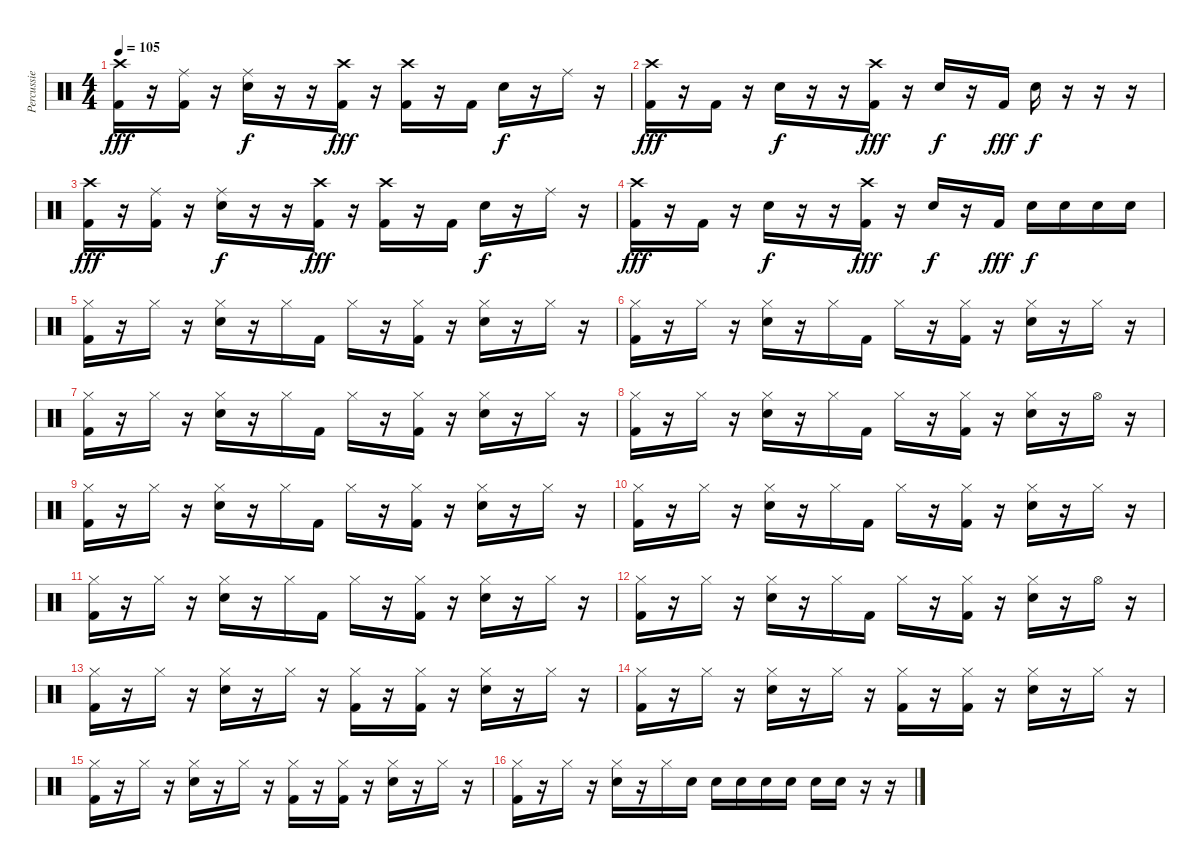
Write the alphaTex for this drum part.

\track ("Percussie" "Percussie") {instrument percussion}
\staff {score}
\articulation defaults
\ts (4 4)
\tempo 105
\clef neutral
\ks c
("Crash high (hit)" "Kick (hit) 2").16{dy fff} r.16 ("Ride (middle)" "Kick (hit) 2").16 r.16 ("Ride (middle)" "Electric Snare (hit)").16{dy f} r.16 r.16 ("Crash high (hit)" "Kick (hit) 2").16{dy fff} r.16 ("Crash high (hit)" "Kick (hit) 2").16 r.16 "Kick (hit) 2".16 "Electric Snare (hit)".16{dy f} r.16 "Ride (middle)".16 r.16 |
("Crash high (hit)" "Kick (hit) 2").16{dy fff} r.16 "Kick (hit) 2".16 r.16 "Electric Snare (hit)".16{dy f} r.16 r.16 ("Crash high (hit)" "Kick (hit) 2").16{dy fff} r.16 "Electric Snare (hit)".16{dy f} r.16 "Kick (hit) 2".16{dy fff} "Electric Snare (hit)".16{dy f} r.16 r.16 r.16 |
("Crash high (hit)" "Kick (hit) 2").16{dy fff} r.16 ("Ride (middle)" "Kick (hit) 2").16 r.16 ("Ride (middle)" "Electric Snare (hit)").16{dy f} r.16 r.16 ("Crash high (hit)" "Kick (hit) 2").16{dy fff} r.16 ("Crash high (hit)" "Kick (hit) 2").16 r.16 "Kick (hit) 2".16 "Electric Snare (hit)".16{dy f} r.16 "Ride (middle)".16 r.16 |
("Crash high (hit)" "Kick (hit) 2").16{dy fff} r.16 "Kick (hit) 2".16 r.16 "Electric Snare (hit)".16{dy f} r.16 r.16 ("Crash high (hit)" "Kick (hit) 2").16{dy fff} r.16 "Electric Snare (hit)".16{dy f} r.16 "Kick (hit) 2".16{dy fff} "Electric Snare (hit)".16{dy f} "Electric Snare (hit)".16 "Electric Snare (hit)".16 "Electric Snare (hit)".16 |
("Hi-Hat (closed)" "Kick (hit) 2").16 r.16 "Hi-Hat (closed)".16 r.16 ("Hi-Hat (closed)" "Electric Snare (hit)").16 r.16 "Hi-Hat (closed)".16 "Kick (hit) 2".16 "Hi-Hat (closed)".16 r.16 ("Hi-Hat (closed)" "Kick (hit) 2").16 r.16 ("Hi-Hat (closed)" "Electric Snare (hit)").16 r.16 "Hi-Hat (closed)".16 r.16 |
("Hi-Hat (closed)" "Kick (hit) 2").16 r.16 "Hi-Hat (closed)".16 r.16 ("Hi-Hat (closed)" "Electric Snare (hit)").16 r.16 "Hi-Hat (closed)".16 "Kick (hit) 2".16 "Hi-Hat (closed)".16 r.16 ("Hi-Hat (closed)" "Kick (hit) 2").16 r.16 ("Hi-Hat (closed)" "Electric Snare (hit)").16 r.16 "Hi-Hat (closed)".16 r.16 |
("Hi-Hat (closed)" "Kick (hit) 2").16 r.16 "Hi-Hat (closed)".16 r.16 ("Hi-Hat (closed)" "Electric Snare (hit)").16 r.16 "Hi-Hat (closed)".16 "Kick (hit) 2".16 "Hi-Hat (closed)".16 r.16 ("Hi-Hat (closed)" "Kick (hit) 2").16 r.16 ("Hi-Hat (closed)" "Electric Snare (hit)").16 r.16 "Hi-Hat (closed)".16 r.16 |
("Hi-Hat (closed)" "Kick (hit) 2").16 r.16 "Hi-Hat (closed)".16 r.16 ("Hi-Hat (closed)" "Electric Snare (hit)").16 r.16 "Hi-Hat (closed)".16 "Kick (hit) 2".16 "Hi-Hat (closed)".16 r.16 ("Hi-Hat (closed)" "Kick (hit) 2").16 r.16 ("Hi-Hat (closed)" "Electric Snare (hit)").16 r.16 "Hi-Hat (open)".16 r.16 |
("Hi-Hat (closed)" "Kick (hit) 2").16 r.16 "Hi-Hat (closed)".16 r.16 ("Hi-Hat (closed)" "Electric Snare (hit)").16 r.16 "Hi-Hat (closed)".16 "Kick (hit) 2".16 "Hi-Hat (closed)".16 r.16 ("Hi-Hat (closed)" "Kick (hit) 2").16 r.16 ("Hi-Hat (closed)" "Electric Snare (hit)").16 r.16 "Hi-Hat (closed)".16 r.16 |
("Hi-Hat (closed)" "Kick (hit) 2").16 r.16 "Hi-Hat (closed)".16 r.16 ("Hi-Hat (closed)" "Electric Snare (hit)").16 r.16 "Hi-Hat (closed)".16 "Kick (hit) 2".16 "Hi-Hat (closed)".16 r.16 ("Hi-Hat (closed)" "Kick (hit) 2").16 r.16 ("Hi-Hat (closed)" "Electric Snare (hit)").16 r.16 "Hi-Hat (closed)".16 r.16 |
("Hi-Hat (closed)" "Kick (hit) 2").16 r.16 "Hi-Hat (closed)".16 r.16 ("Hi-Hat (closed)" "Electric Snare (hit)").16 r.16 "Hi-Hat (closed)".16 "Kick (hit) 2".16 "Hi-Hat (closed)".16 r.16 ("Hi-Hat (closed)" "Kick (hit) 2").16 r.16 ("Hi-Hat (closed)" "Electric Snare (hit)").16 r.16 "Hi-Hat (closed)".16 r.16 |
("Hi-Hat (closed)" "Kick (hit) 2").16 r.16 "Hi-Hat (closed)".16 r.16 ("Hi-Hat (closed)" "Electric Snare (hit)").16 r.16 "Hi-Hat (closed)".16 "Kick (hit) 2".16 "Hi-Hat (closed)".16 r.16 ("Hi-Hat (closed)" "Kick (hit) 2").16 r.16 ("Hi-Hat (closed)" "Electric Snare (hit)").16 r.16 "Hi-Hat (open)".16 r.16 |
("Hi-Hat (closed)" "Kick (hit) 2").16 r.16 "Hi-Hat (closed)".16 r.16 ("Hi-Hat (closed)" "Electric Snare (hit)").16 r.16 "Hi-Hat (closed)".16 r.16 ("Hi-Hat (closed)" "Kick (hit) 2").16 r.16 ("Hi-Hat (closed)" "Kick (hit) 2").16 r.16 ("Hi-Hat (closed)" "Electric Snare (hit)").16 r.16 "Hi-Hat (closed)".16 r.16 |
("Hi-Hat (closed)" "Kick (hit) 2").16 r.16 "Hi-Hat (closed)".16 r.16 ("Hi-Hat (closed)" "Electric Snare (hit)").16 r.16 "Hi-Hat (closed)".16 r.16 ("Hi-Hat (closed)" "Kick (hit) 2").16 r.16 ("Hi-Hat (closed)" "Kick (hit) 2").16 r.16 ("Hi-Hat (closed)" "Electric Snare (hit)").16 r.16 "Hi-Hat (closed)".16 r.16 |
("Hi-Hat (closed)" "Kick (hit) 2").16 r.16 "Hi-Hat (closed)".16 r.16 ("Hi-Hat (closed)" "Electric Snare (hit)").16 r.16 "Hi-Hat (closed)".16 r.16 ("Hi-Hat (closed)" "Kick (hit) 2").16 r.16 ("Hi-Hat (closed)" "Kick (hit) 2").16 r.16 ("Hi-Hat (closed)" "Electric Snare (hit)").16 r.16 "Hi-Hat (closed)".16 r.16 |
("Hi-Hat (closed)" "Kick (hit) 2").16 r.16 "Hi-Hat (closed)".16 r.16 ("Hi-Hat (closed)" "Electric Snare (hit)").16 r.16 "Hi-Hat (closed)".16 "Electric Snare (hit)".16 "Electric Snare (hit)".16 "Electric Snare (hit)".16 "Electric Snare (hit)".16 "Electric Snare (hit)".16 "Electric Snare (hit)".16 "Electric Snare (hit)".16 r.16 r.16
